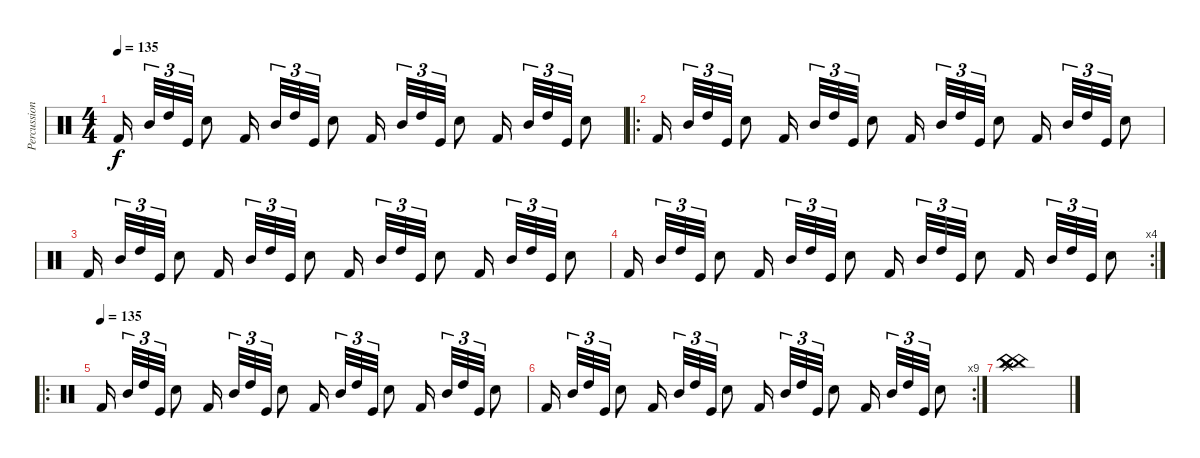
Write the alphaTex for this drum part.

\track ("Percussion" "Percussion") {instrument percussion}
\staff {score}
\articulation defaults
\ts (4 4)
\tempo 135
\clef neutral
\ks c "Kick (hit) 2".16{dy f} "Mid Tom (hit)".32{tu (3 2)} "High Tom (hit)".32{tu (3 2)} "Kick (hit)".32{tu (3 2)} "Snare (hit) 2".8 "Kick (hit) 2".16 "Mid Tom (hit)".32{tu (3 2)} "High Tom (hit)".32{tu (3 2)} "Kick (hit)".32{tu (3 2)} "Snare (hit) 2".8 "Kick (hit) 2".16 "Mid Tom (hit)".32{tu (3 2)} "High Tom (hit)".32{tu (3 2)} "Kick (hit)".32{tu (3 2)} "Snare (hit) 2".8 "Kick (hit) 2".16 "Mid Tom (hit)".32{tu (3 2)} "High Tom (hit)".32{tu (3 2)} "Kick (hit)".32{tu (3 2)} "Snare (hit) 2".8
|
\ro "Kick (hit) 2".16 "Mid Tom (hit)".32{tu (3 2)} "High Tom (hit)".32{tu (3 2)} "Kick (hit)".32{tu (3 2)} "Snare (hit) 2".8 "Kick (hit) 2".16 "Mid Tom (hit)".32{tu (3 2)} "High Tom (hit)".32{tu (3 2)} "Kick (hit)".32{tu (3 2)} "Snare (hit) 2".8 "Kick (hit) 2".16 "Mid Tom (hit)".32{tu (3 2)} "High Tom (hit)".32{tu (3 2)} "Kick (hit)".32{tu (3 2)} "Snare (hit) 2".8 "Kick (hit) 2".16 "Mid Tom (hit)".32{tu (3 2)} "High Tom (hit)".32{tu (3 2)} "Kick (hit)".32{tu (3 2)} "Snare (hit) 2".8
|
"Kick (hit) 2".16 "Mid Tom (hit)".32{tu (3 2)} "High Tom (hit)".32{tu (3 2)} "Kick (hit)".32{tu (3 2)} "Snare (hit) 2".8 "Kick (hit) 2".16 "Mid Tom (hit)".32{tu (3 2)} "High Tom (hit)".32{tu (3 2)} "Kick (hit)".32{tu (3 2)} "Snare (hit) 2".8 "Kick (hit) 2".16 "Mid Tom (hit)".32{tu (3 2)} "High Tom (hit)".32{tu (3 2)} "Kick (hit)".32{tu (3 2)} "Snare (hit) 2".8 "Kick (hit) 2".16 "Mid Tom (hit)".32{tu (3 2)} "High Tom (hit)".32{tu (3 2)} "Kick (hit)".32{tu (3 2)} "Snare (hit) 2".8 |
\rc 4 "Kick (hit) 2".16 "Mid Tom (hit)".32{tu (3 2)} "High Tom (hit)".32{tu (3 2)} "Kick (hit)".32{tu (3 2)} "Snare (hit) 2".8 "Kick (hit) 2".16 "Mid Tom (hit)".32{tu (3 2)} "High Tom (hit)".32{tu (3 2)} "Kick (hit)".32{tu (3 2)} "Snare (hit) 2".8 "Kick (hit) 2".16 "Mid Tom (hit)".32{tu (3 2)} "High Tom (hit)".32{tu (3 2)} "Kick (hit)".32{tu (3 2)} "Snare (hit) 2".8 "Kick (hit) 2".16 "Mid Tom (hit)".32{tu (3 2)} "High Tom (hit)".32{tu (3 2)} "Kick (hit)".32{tu (3 2)} "Snare (hit) 2".8
|
\ro
\tempo (135)
"Kick (hit) 2".16 "Mid Tom (hit)".32{tu (3 2)} "High Tom (hit)".32{tu (3 2)} "Kick (hit)".32{tu (3 2)} "Snare (hit) 2".8 "Kick (hit) 2".16 "Mid Tom (hit)".32{tu (3 2)} "High Tom (hit)".32{tu (3 2)} "Kick (hit)".32{tu (3 2)} "Snare (hit) 2".8 "Kick (hit) 2".16 "Mid Tom (hit)".32{tu (3 2)} "High Tom (hit)".32{tu (3 2)} "Kick (hit)".32{tu (3 2)} "Snare (hit) 2".8 "Kick (hit) 2".16 "Mid Tom (hit)".32{tu (3 2)} "High Tom (hit)".32{tu (3 2)} "Kick (hit)".32{tu (3 2)} "Snare (hit) 2".8 |
\rc 9 "Kick (hit) 2".16 "Mid Tom (hit)".32{tu (3 2)} "High Tom (hit)".32{tu (3 2)} "Kick (hit)".32{tu (3 2)} "Snare (hit) 2".8 "Kick (hit) 2".16 "Mid Tom (hit)".32{tu (3 2)} "High Tom (hit)".32{tu (3 2)} "Kick (hit)".32{tu (3 2)} "Snare (hit) 2".8 "Kick (hit) 2".16 "Mid Tom (hit)".32{tu (3 2)} "High Tom (hit)".32{tu (3 2)} "Kick (hit)".32{tu (3 2)} "Snare (hit) 2".8 "Kick (hit) 2".16 "Mid Tom (hit)".32{tu (3 2)} "High Tom (hit)".32{tu (3 2)} "Kick (hit)".32{tu (3 2)} "Snare (hit) 2".8
|
("Splash (hit)" "Splash (hit)" "Splash (hit)" "China (hit)" "China (hit)" "China (hit)").1
